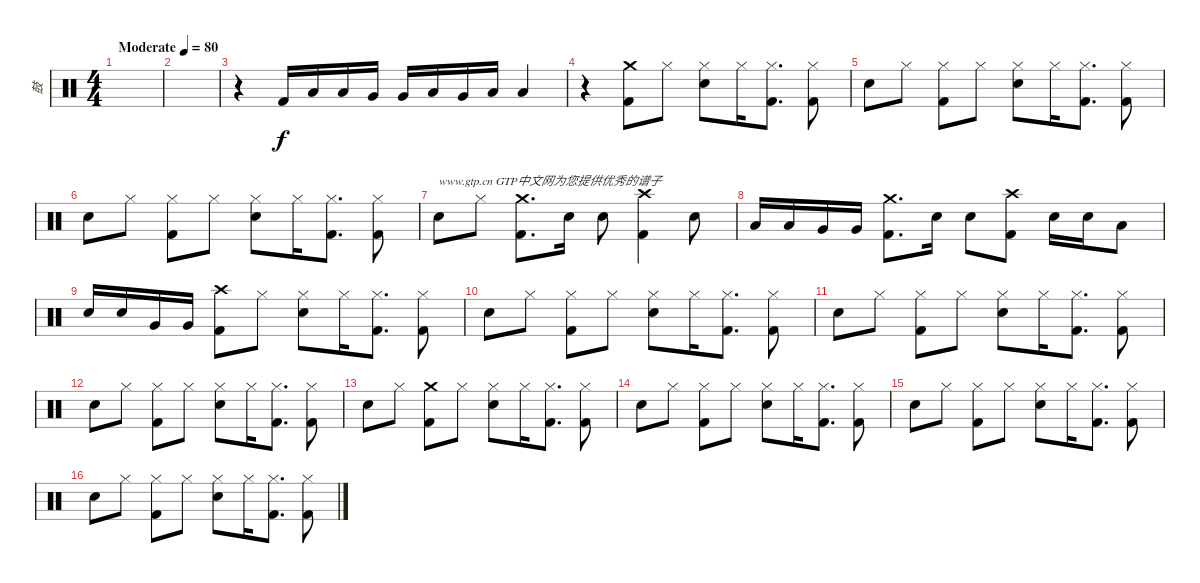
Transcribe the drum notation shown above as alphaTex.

\track ("鼓" "鼓") {instrument percussion}
\staff {score}
\articulation defaults
\ts (4 4)
\tempo (80 "Moderate")
\clef neutral
\ks c
|
|
r.4 "Kick (hit) 2".16 "Low Tom (hit)".16 "Low Tom (hit)".16 "Very Low Tom (hit)".16 "Very Low Tom (hit)".16 "Low Tom (hit)".16 "Very Low Tom (hit)".16 "Low Floor Tom (hit)".16 "Low Floor Tom (hit)".4 |
r.4 ("Crash medium (hit)" "Kick (hit) 2").8 "Hi-Hat (closed)".8 ("Hi-Hat (closed)" "Snare (hit) 2").8 "Hi-Hat (closed)".16 ("Hi-Hat (closed)" "Kick (hit) 2").8{d} ("Hi-Hat (closed)" "Kick (hit) 2").8 |
"Snare (hit) 2".8 "Hi-Hat (closed)".8 ("Hi-Hat (closed)" "Kick (hit) 2").8 "Hi-Hat (closed)".8 ("Hi-Hat (closed)" "Snare (hit) 2").8 "Hi-Hat (closed)".16 ("Hi-Hat (closed)" "Kick (hit) 2").8{d} ("Hi-Hat (closed)" "Kick (hit) 2").8 |
"Snare (hit) 2".8 "Hi-Hat (closed)".8 ("Hi-Hat (closed)" "Kick (hit) 2").8 "Hi-Hat (closed)".8 ("Hi-Hat (closed)" "Snare (hit) 2").8 "Hi-Hat (closed)".16 ("Hi-Hat (closed)" "Kick (hit) 2").8{d} ("Hi-Hat (closed)" "Kick (hit) 2").8 |
"Snare (hit) 2".8{txt "www.gtp.cn GTP中文网为您提供优秀的谱子"} "Hi-Hat (closed)".8 ("Crash medium (hit)" "Kick (hit) 2").8{d} "Snare (hit) 2".16 "Snare (hit) 2".8 ("Crash high (hit)" "Kick (hit) 2").4 "Snare (hit) 2".8 |
"Low Tom (hit)".16 "Low Tom (hit)".16 "Very Low Tom (hit)".16 "Very Low Tom (hit)".16 ("Crash medium (hit)" "Kick (hit) 2").8{d} "Snare (hit) 2".16 "Snare (hit) 2".8 ("Crash high (hit)" "Kick (hit) 2").8 "Snare (hit) 2".16 "Snare (hit) 2".16 "Low Tom (hit)".8 |
"Snare (hit) 2".16 "Snare (hit) 2".16 "Very Low Tom (hit)".16 "Very Low Tom (hit)".16 ("Crash high (hit)" "Kick (hit) 2").8 "Hi-Hat (closed)".8 ("Hi-Hat (closed)" "Snare (hit) 2").8 "Hi-Hat (closed)".16 ("Hi-Hat (closed)" "Kick (hit) 2").8{d} ("Hi-Hat (closed)" "Kick (hit) 2").8 |
"Snare (hit) 2".8 "Hi-Hat (closed)".8 ("Hi-Hat (closed)" "Kick (hit) 2").8 "Hi-Hat (closed)".8 ("Hi-Hat (closed)" "Snare (hit) 2").8 "Hi-Hat (closed)".16 ("Hi-Hat (closed)" "Kick (hit) 2").8{d} ("Hi-Hat (closed)" "Kick (hit) 2").8 |
"Snare (hit) 2".8 "Hi-Hat (closed)".8 ("Hi-Hat (closed)" "Kick (hit) 2").8 "Hi-Hat (closed)".8 ("Hi-Hat (closed)" "Snare (hit) 2").8 "Hi-Hat (closed)".16 ("Hi-Hat (closed)" "Kick (hit) 2").8{d} ("Hi-Hat (closed)" "Kick (hit) 2").8 |
"Snare (hit) 2".8 "Hi-Hat (closed)".8 ("Hi-Hat (closed)" "Kick (hit) 2").8 "Hi-Hat (closed)".8 ("Hi-Hat (closed)" "Snare (hit) 2").8 "Hi-Hat (closed)".16 ("Hi-Hat (closed)" "Kick (hit) 2").8{d} ("Hi-Hat (closed)" "Kick (hit) 2").8 |
"Snare (hit) 2".8 "Hi-Hat (closed)".8 ("Crash medium (hit)" "Kick (hit) 2").8 "Hi-Hat (closed)".8 ("Hi-Hat (closed)" "Snare (hit) 2").8 "Hi-Hat (closed)".16 ("Hi-Hat (closed)" "Kick (hit) 2").8{d} ("Hi-Hat (closed)" "Kick (hit) 2").8 |
"Snare (hit) 2".8 "Hi-Hat (closed)".8 ("Hi-Hat (closed)" "Kick (hit) 2").8 "Hi-Hat (closed)".8 ("Hi-Hat (closed)" "Snare (hit) 2").8 "Hi-Hat (closed)".16 ("Hi-Hat (closed)" "Kick (hit) 2").8{d} ("Hi-Hat (closed)" "Kick (hit) 2").8 |
"Snare (hit) 2".8 "Hi-Hat (closed)".8 ("Hi-Hat (closed)" "Kick (hit) 2").8 "Hi-Hat (closed)".8 ("Hi-Hat (closed)" "Snare (hit) 2").8 "Hi-Hat (closed)".16 ("Hi-Hat (closed)" "Kick (hit) 2").8{d} ("Hi-Hat (closed)" "Kick (hit) 2").8 |
"Snare (hit) 2".8 "Hi-Hat (closed)".8 ("Hi-Hat (closed)" "Kick (hit) 2").8 "Hi-Hat (closed)".8 ("Hi-Hat (closed)" "Snare (hit) 2").8 "Hi-Hat (closed)".16 ("Hi-Hat (closed)" "Kick (hit) 2").8{d} ("Hi-Hat (closed)" "Kick (hit) 2").8
